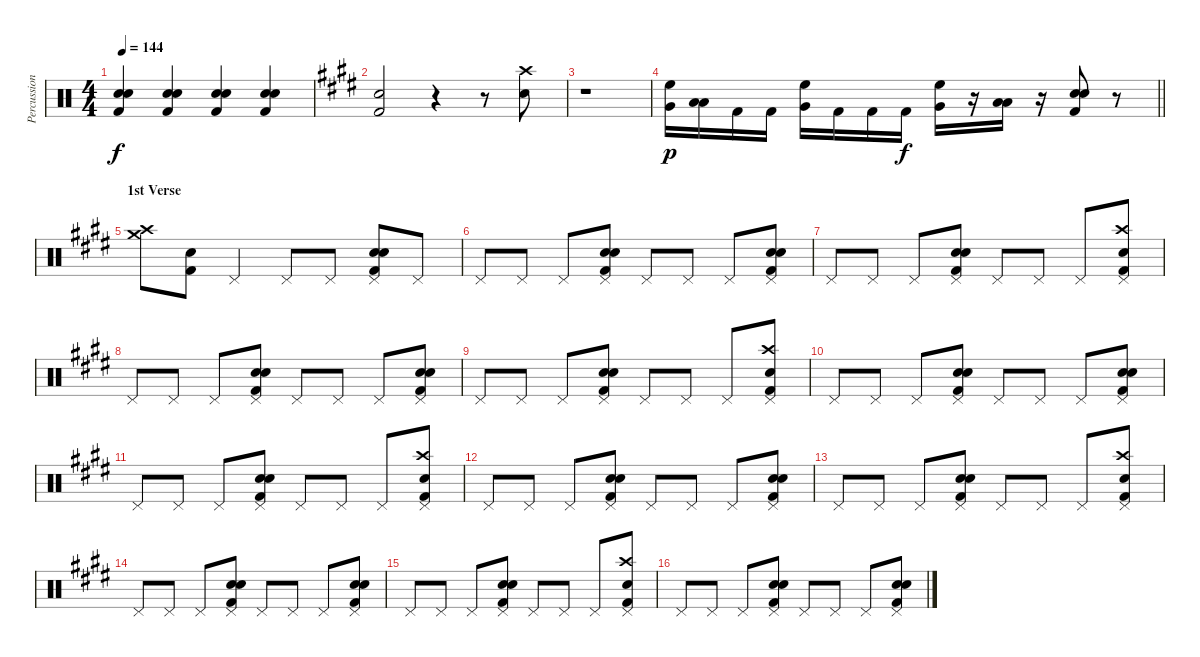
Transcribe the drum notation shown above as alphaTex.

\track ("Percussion" "Percussion") {instrument percussion}
\staff {score}
\articulation defaults
\ts (4 4)
\tempo 144
\clef neutral
\ks c
("Snare (hit) 2" "Snare (hit) 2" "Kick (hit) 2").4{dy f} ("Snare (hit) 2" "Snare (hit) 2" "Kick (hit) 2").4 ("Snare (hit) 2" "Snare (hit) 2" "Kick (hit) 2").4 ("Snare (hit) 2" "Snare (hit) 2" "Kick (hit) 2").4 |
\ks e
("Snare (hit) 2" "Kick (hit) 2").2 r.4 r.8 ("Crash high (hit)" "Snare (hit) 2").8 |
\ks c#minor
r.1 |
\barLineRight lightlight
("Very Low Tom (hit)" "High Floor Tom (hit)").16{dy p} ("Low Floor Tom (hit)" "Low Tom (hit)").16 "Kick (hit) 2".16 "Kick (hit) 2".16 ("Very Low Tom (hit)" "High Floor Tom (hit)").16 "Kick (hit) 2".16 "Kick (hit) 2".16 "Kick (hit) 2".16{dy f} ("Very Low Tom (hit)" "High Floor Tom (hit)").16 r.16 ("Low Floor Tom (hit)" "Low Tom (hit)").16 r.16 ("Snare (hit) 2" "Snare (hit) 2" "Kick (hit) 2").8 r.8 |
\section ("" "1st Verse")
("Crash high (hit)" "Crash medium (hit)").8 ("Snare (hit) 2" "Kick (hit) 2").8 "Pedal Hi-Hat (hit)".4 "Pedal Hi-Hat (hit)".8 "Pedal Hi-Hat (hit)".8 ("Pedal Hi-Hat (hit)" "Snare (hit) 2" "Snare (hit) 2" "Kick (hit) 2").8 "Pedal Hi-Hat (hit)".8 |
\ks e "Pedal Hi-Hat (hit)".8 "Pedal Hi-Hat (hit)".8 "Pedal Hi-Hat (hit)".8
("Pedal Hi-Hat (hit)" "Snare (hit) 2" "Snare (hit) 2" "Kick (hit) 2").8 "Pedal Hi-Hat (hit)".8 "Pedal Hi-Hat (hit)".8 "Pedal Hi-Hat (hit)".8 ("Pedal Hi-Hat (hit)" "Snare (hit) 2" "Snare (hit) 2" "Kick (hit) 2").8 |
\ks c#minor "Pedal Hi-Hat (hit)".8 "Pedal Hi-Hat (hit)".8 "Pedal Hi-Hat (hit)".8
("Pedal Hi-Hat (hit)" "Snare (hit) 2" "Snare (hit) 2" "Kick (hit) 2").8 "Pedal Hi-Hat (hit)".8 "Pedal Hi-Hat (hit)".8 "Pedal Hi-Hat (hit)".8 ("Pedal Hi-Hat (hit)" "Snare (hit) 2" "Crash high (hit)" "Kick (hit) 2").8 |
"Pedal Hi-Hat (hit)".8 "Pedal Hi-Hat (hit)".8 "Pedal Hi-Hat (hit)".8 ("Pedal Hi-Hat (hit)" "Snare (hit) 2" "Snare (hit) 2" "Kick (hit) 2").8 "Pedal Hi-Hat (hit)".8 "Pedal Hi-Hat (hit)".8 "Pedal Hi-Hat (hit)".8 ("Pedal Hi-Hat (hit)" "Snare (hit) 2" "Snare (hit) 2" "Kick (hit) 2").8 |
"Pedal Hi-Hat (hit)".8 "Pedal Hi-Hat (hit)".8 "Pedal Hi-Hat (hit)".8 ("Pedal Hi-Hat (hit)" "Snare (hit) 2" "Snare (hit) 2" "Kick (hit) 2").8 "Pedal Hi-Hat (hit)".8 "Pedal Hi-Hat (hit)".8 "Pedal Hi-Hat (hit)".8 ("Pedal Hi-Hat (hit)" "Snare (hit) 2" "Crash high (hit)" "Kick (hit) 2").8 |
\ks e "Pedal Hi-Hat (hit)".8 "Pedal Hi-Hat (hit)".8 "Pedal Hi-Hat (hit)".8
("Pedal Hi-Hat (hit)" "Snare (hit) 2" "Snare (hit) 2" "Kick (hit) 2").8 "Pedal Hi-Hat (hit)".8 "Pedal Hi-Hat (hit)".8 "Pedal Hi-Hat (hit)".8 ("Pedal Hi-Hat (hit)" "Snare (hit) 2" "Snare (hit) 2" "Kick (hit) 2").8 |
\ks c#minor "Pedal Hi-Hat (hit)".8 "Pedal Hi-Hat (hit)".8 "Pedal Hi-Hat (hit)".8
("Pedal Hi-Hat (hit)" "Snare (hit) 2" "Snare (hit) 2" "Kick (hit) 2").8 "Pedal Hi-Hat (hit)".8 "Pedal Hi-Hat (hit)".8 "Pedal Hi-Hat (hit)".8 ("Pedal Hi-Hat (hit)" "Snare (hit) 2" "Crash high (hit)" "Kick (hit) 2").8 |
"Pedal Hi-Hat (hit)".8 "Pedal Hi-Hat (hit)".8 "Pedal Hi-Hat (hit)".8 ("Pedal Hi-Hat (hit)" "Snare (hit) 2" "Snare (hit) 2" "Kick (hit) 2").8 "Pedal Hi-Hat (hit)".8 "Pedal Hi-Hat (hit)".8 "Pedal Hi-Hat (hit)".8 ("Pedal Hi-Hat (hit)" "Snare (hit) 2" "Snare (hit) 2" "Kick (hit) 2").8 |
"Pedal Hi-Hat (hit)".8 "Pedal Hi-Hat (hit)".8 "Pedal Hi-Hat (hit)".8 ("Pedal Hi-Hat (hit)" "Snare (hit) 2" "Snare (hit) 2" "Kick (hit) 2").8 "Pedal Hi-Hat (hit)".8 "Pedal Hi-Hat (hit)".8 "Pedal Hi-Hat (hit)".8 ("Pedal Hi-Hat (hit)" "Snare (hit) 2" "Crash high (hit)" "Kick (hit) 2").8 |
\ks e "Pedal Hi-Hat (hit)".8 "Pedal Hi-Hat (hit)".8 "Pedal Hi-Hat (hit)".8
("Pedal Hi-Hat (hit)" "Snare (hit) 2" "Snare (hit) 2" "Kick (hit) 2").8 "Pedal Hi-Hat (hit)".8 "Pedal Hi-Hat (hit)".8 "Pedal Hi-Hat (hit)".8 ("Pedal Hi-Hat (hit)" "Snare (hit) 2" "Snare (hit) 2" "Kick (hit) 2").8 |
\ks c#minor "Pedal Hi-Hat (hit)".8 "Pedal Hi-Hat (hit)".8 "Pedal Hi-Hat (hit)".8
("Pedal Hi-Hat (hit)" "Snare (hit) 2" "Snare (hit) 2" "Kick (hit) 2").8 "Pedal Hi-Hat (hit)".8 "Pedal Hi-Hat (hit)".8 "Pedal Hi-Hat (hit)".8 ("Pedal Hi-Hat (hit)" "Snare (hit) 2" "Crash high (hit)" "Kick (hit) 2").8 |
"Pedal Hi-Hat (hit)".8 "Pedal Hi-Hat (hit)".8 "Pedal Hi-Hat (hit)".8 ("Pedal Hi-Hat (hit)" "Snare (hit) 2" "Snare (hit) 2" "Kick (hit) 2").8 "Pedal Hi-Hat (hit)".8 "Pedal Hi-Hat (hit)".8 "Pedal Hi-Hat (hit)".8 ("Pedal Hi-Hat (hit)" "Snare (hit) 2" "Snare (hit) 2" "Kick (hit) 2").8
